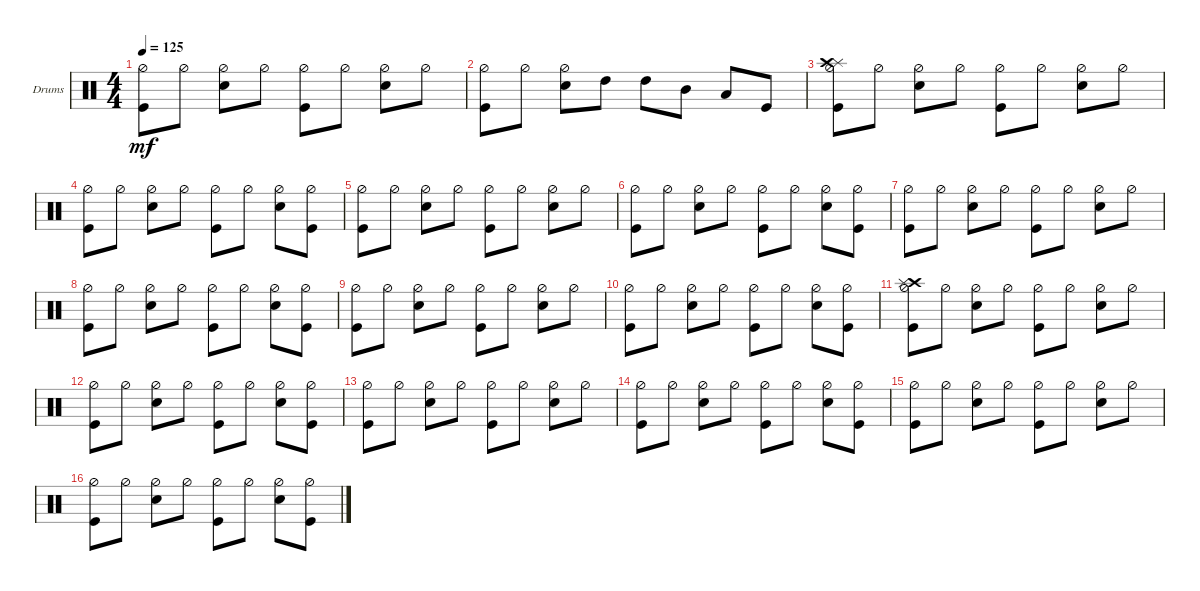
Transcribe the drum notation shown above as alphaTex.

\defaultSystemsLayout 4
\bracketExtendMode groupsimilarinstruments
\firstSystemTrackNameOrientation horizontal
\otherSystemsTrackNameOrientation horizontal
\track ("Drumkit" "Drums") {instrument percussion}
\staff {score}
\articulation defaults
\ts (4 4)
\tempo 125
\clef neutral
\scale
0.472222
\ks c
("Kick (hit)" "Hi-Hat (half)").8{dy mf} "Hi-Hat (half)".8 ("Hi-Hat (half)" "Snare (hit) 2").8 "Hi-Hat (half)".8 ("Kick (hit)" "Hi-Hat (half)").8 "Hi-Hat (half)".8 ("Hi-Hat (half)" "Snare (hit) 2").8 "Hi-Hat (half)".8 |
\scale
0.263889 ("Kick (hit)" "Hi-Hat (half)").8 "Hi-Hat (half)".8 ("Hi-Hat (half)" "Snare (hit) 2").8 "High Tom (hit)".8 "High Tom (hit)".8 "Mid Tom (hit)".8 "Low Tom (hit)".8 "Kick (hit)".8 |
\scale
0.263889 ("Kick (hit)" "Hi-Hat (half)" "Splash (hit)" "Crash high (hit)").8 "Hi-Hat (half)".8 ("Hi-Hat (half)" "Snare (hit) 2").8 "Hi-Hat (half)".8 ("Kick (hit)" "Hi-Hat (half)").8 "Hi-Hat (half)".8 ("Hi-Hat (half)" "Snare (hit) 2").8 "Hi-Hat (half)".8 |
\scale
0.333333 ("Kick (hit)" "Hi-Hat (half)").8 "Hi-Hat (half)".8 ("Hi-Hat (half)" "Snare (hit) 2").8 "Hi-Hat (half)".8 ("Kick (hit)" "Hi-Hat (half)").8 "Hi-Hat (half)".8 ("Hi-Hat (half)" "Snare (hit) 2").8 ("Hi-Hat (half)" "Kick (hit)").8 |
\scale
0.333333 ("Kick (hit)" "Hi-Hat (half)").8 "Hi-Hat (half)".8 ("Hi-Hat (half)" "Snare (hit) 2").8 "Hi-Hat (half)".8 ("Kick (hit)" "Hi-Hat (half)").8 "Hi-Hat (half)".8 ("Hi-Hat (half)" "Snare (hit) 2").8 "Hi-Hat (half)".8 |
\scale
0.333333 ("Kick (hit)" "Hi-Hat (half)").8 "Hi-Hat (half)".8 ("Hi-Hat (half)" "Snare (hit) 2").8 "Hi-Hat (half)".8 ("Kick (hit)" "Hi-Hat (half)").8 "Hi-Hat (half)".8 ("Hi-Hat (half)" "Snare (hit) 2").8 ("Hi-Hat (half)" "Kick (hit)").8 |
\scale
0.333333 ("Kick (hit)" "Hi-Hat (half)").8 "Hi-Hat (half)".8 ("Hi-Hat (half)" "Snare (hit) 2").8 "Hi-Hat (half)".8 ("Kick (hit)" "Hi-Hat (half)").8 "Hi-Hat (half)".8 ("Hi-Hat (half)" "Snare (hit) 2").8 "Hi-Hat (half)".8 |
\scale
0.333333 ("Kick (hit)" "Hi-Hat (half)").8 "Hi-Hat (half)".8 ("Hi-Hat (half)" "Snare (hit) 2").8 "Hi-Hat (half)".8 ("Kick (hit)" "Hi-Hat (half)").8 "Hi-Hat (half)".8 ("Hi-Hat (half)" "Snare (hit) 2").8 ("Hi-Hat (half)" "Kick (hit)").8 |
\scale
0.333333 ("Kick (hit)" "Hi-Hat (half)").8 "Hi-Hat (half)".8 ("Hi-Hat (half)" "Snare (hit) 2").8 "Hi-Hat (half)".8 ("Kick (hit)" "Hi-Hat (half)").8 "Hi-Hat (half)".8 ("Hi-Hat (half)" "Snare (hit) 2").8 "Hi-Hat (half)".8 |
\scale
0.333333 ("Kick (hit)" "Hi-Hat (half)").8 "Hi-Hat (half)".8 ("Hi-Hat (half)" "Snare (hit) 2").8 "Hi-Hat (half)".8 ("Kick (hit)" "Hi-Hat (half)").8 "Hi-Hat (half)".8 ("Hi-Hat (half)" "Snare (hit) 2").8 ("Hi-Hat (half)" "Kick (hit)").8 |
\scale
0.333333 ("Kick (hit)" "Hi-Hat (half)" "Crash high (hit)" "Splash (hit)").8 "Hi-Hat (half)".8 ("Hi-Hat (half)" "Snare (hit) 2").8 "Hi-Hat (half)".8 ("Kick (hit)" "Hi-Hat (half)").8 "Hi-Hat (half)".8 ("Hi-Hat (half)" "Snare (hit) 2").8 "Hi-Hat (half)".8 |
\scale
0.333333 ("Kick (hit)" "Hi-Hat (half)").8 "Hi-Hat (half)".8 ("Hi-Hat (half)" "Snare (hit) 2").8 "Hi-Hat (half)".8 ("Kick (hit)" "Hi-Hat (half)").8 "Hi-Hat (half)".8 ("Hi-Hat (half)" "Snare (hit) 2").8 ("Hi-Hat (half)" "Kick (hit)").8 |
\scale
0.333333 ("Kick (hit)" "Hi-Hat (half)").8 "Hi-Hat (half)".8 ("Hi-Hat (half)" "Snare (hit) 2").8 "Hi-Hat (half)".8 ("Kick (hit)" "Hi-Hat (half)").8 "Hi-Hat (half)".8 ("Hi-Hat (half)" "Snare (hit) 2").8 "Hi-Hat (half)".8 |
\scale
0.333333 ("Kick (hit)" "Hi-Hat (half)").8 "Hi-Hat (half)".8 ("Hi-Hat (half)" "Snare (hit) 2").8 "Hi-Hat (half)".8 ("Kick (hit)" "Hi-Hat (half)").8 "Hi-Hat (half)".8 ("Hi-Hat (half)" "Snare (hit) 2").8 ("Hi-Hat (half)" "Kick (hit)").8 |
\scale
0.333333 ("Kick (hit)" "Hi-Hat (half)").8 "Hi-Hat (half)".8 ("Hi-Hat (half)" "Snare (hit) 2").8 "Hi-Hat (half)".8 ("Kick (hit)" "Hi-Hat (half)").8 "Hi-Hat (half)".8 ("Hi-Hat (half)" "Snare (hit) 2").8 "Hi-Hat (half)".8 |
\scale
0.333333 ("Kick (hit)" "Hi-Hat (half)").8 "Hi-Hat (half)".8 ("Hi-Hat (half)" "Snare (hit) 2").8 "Hi-Hat (half)".8 ("Kick (hit)" "Hi-Hat (half)").8 "Hi-Hat (half)".8 ("Hi-Hat (half)" "Snare (hit) 2").8 ("Hi-Hat (half)" "Kick (hit)").8
